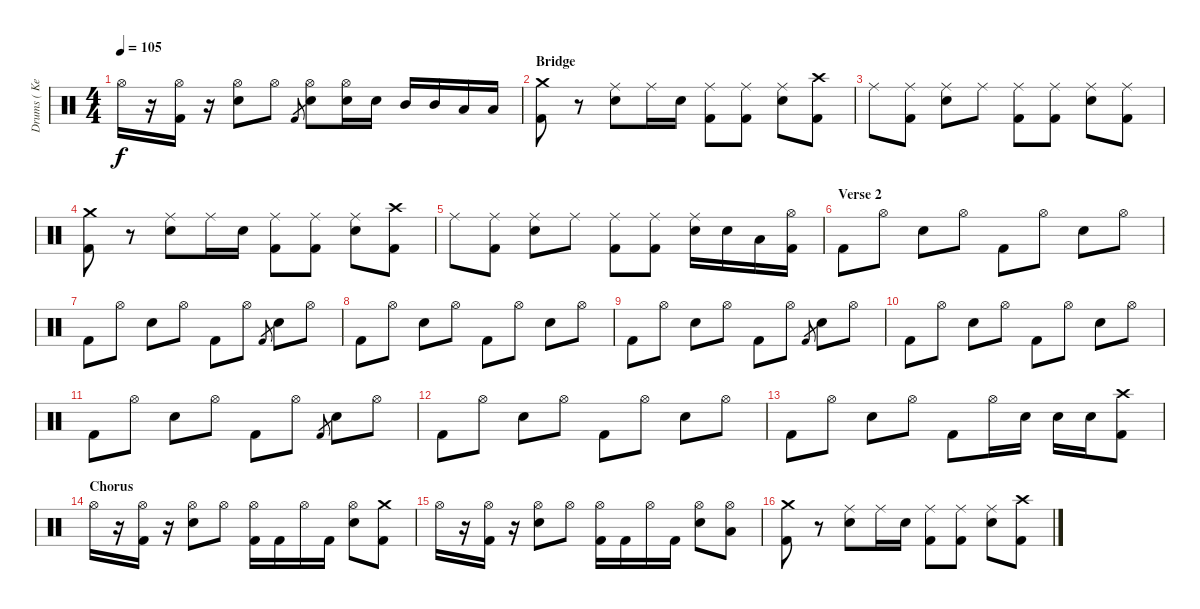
\track ("Drums ( Kevin Miller )" "Drums ( Ke") {instrument percussion}
\staff {score}
\articulation defaults
\ts (4 4)
\tempo 105
\clef neutral
\ks c "Hi-Hat (open)".16{dy f}
r.16 ("Hi-Hat (open)" "Kick (hit) 2").16 r.16 ("Hi-Hat (open)" "Snare (hit) 2").8 "Hi-Hat (open)".8 "Kick (hit) 2".8{gr} ("Hi-Hat (open)" "Snare (hit) 2").8 ("Hi-Hat (open)" "Snare (hit) 2").16 "Snare (hit) 2".16 "Mid Tom (hit)".16 "Mid Tom (hit)".16 "Low Tom (hit)".16 "Low Tom (hit)".16 |
\section ("" "Bridge")
("Crash medium (hit)" "Kick (hit) 2").8 r.8 ("Ride (middle)" "Snare (hit) 2").8 "Ride (middle)".16 "Snare (hit) 2".16 ("Ride (middle)" "Kick (hit) 2").8 ("Ride (middle)" "Kick (hit) 2").8 ("Ride (middle)" "Snare (hit) 2").8 ("Crash high (hit)" "Kick (hit) 2").8 |
"Ride (middle)".8 ("Ride (middle)" "Kick (hit) 2").8 ("Ride (middle)" "Snare (hit) 2").8 "Ride (middle)".8 ("Ride (middle)" "Kick (hit) 2").8 ("Ride (middle)" "Kick (hit) 2").8 ("Ride (middle)" "Snare (hit) 2").8 ("Ride (middle)" "Kick (hit) 2").8 |
("Crash medium (hit)" "Kick (hit) 2").8 r.8 ("Ride (middle)" "Snare (hit) 2").8 "Ride (middle)".16 "Snare (hit) 2".16 ("Ride (middle)" "Kick (hit) 2").8 ("Ride (middle)" "Kick (hit) 2").8 ("Ride (middle)" "Snare (hit) 2").8 ("Crash high (hit)" "Kick (hit) 2").8 |
"Ride (middle)".8 ("Ride (middle)" "Kick (hit) 2").8 ("Ride (middle)" "Snare (hit) 2").8 "Ride (middle)".8 ("Ride (middle)" "Kick (hit) 2").8 ("Ride (middle)" "Kick (hit) 2").8 ("Ride (middle)" "Snare (hit) 2").16 "Snare (hit) 2".16 "Low Tom (hit)".16 ("Hi-Hat (open)" "Kick (hit) 2").16 |
\section ("" "Verse 2")
"Kick (hit) 2".8 "Hi-Hat (open)".8 "Snare (hit) 2".8 "Hi-Hat (open)".8 "Kick (hit) 2".8 "Hi-Hat (open)".8 "Snare (hit) 2".8 "Hi-Hat (open)".8 |
"Kick (hit) 2".8 "Hi-Hat (open)".8 "Snare (hit) 2".8 "Hi-Hat (open)".8 "Kick (hit) 2".8 "Hi-Hat (open)".8 "Kick (hit) 2".8{gr} "Snare (hit) 2".8 "Hi-Hat (open)".8 |
"Kick (hit) 2".8 "Hi-Hat (open)".8 "Snare (hit) 2".8 "Hi-Hat (open)".8 "Kick (hit) 2".8 "Hi-Hat (open)".8 "Snare (hit) 2".8 "Hi-Hat (open)".8 |
"Kick (hit) 2".8 "Hi-Hat (open)".8 "Snare (hit) 2".8 "Hi-Hat (open)".8 "Kick (hit) 2".8 "Hi-Hat (open)".8 "Kick (hit) 2".8{gr} "Snare (hit) 2".8 "Hi-Hat (open)".8 |
"Kick (hit) 2".8 "Hi-Hat (open)".8 "Snare (hit) 2".8 "Hi-Hat (open)".8 "Kick (hit) 2".8 "Hi-Hat (open)".8 "Snare (hit) 2".8 "Hi-Hat (open)".8 |
"Kick (hit) 2".8 "Hi-Hat (open)".8 "Snare (hit) 2".8 "Hi-Hat (open)".8 "Kick (hit) 2".8 "Hi-Hat (open)".8 "Kick (hit) 2".8{gr} "Snare (hit) 2".8 "Hi-Hat (open)".8 |
"Kick (hit) 2".8 "Hi-Hat (open)".8 "Snare (hit) 2".8 "Hi-Hat (open)".8 "Kick (hit) 2".8 "Hi-Hat (open)".8 "Snare (hit) 2".8 "Hi-Hat (open)".8 |
"Kick (hit) 2".8 "Hi-Hat (open)".8 "Snare (hit) 2".8 "Hi-Hat (open)".8 "Kick (hit) 2".8 "Hi-Hat (open)".16 "Snare (hit) 2".16 "Snare (hit) 2".16 "Snare (hit) 2".16 ("Crash high (hit)" "Kick (hit) 2").8 |
\section ("" "Chorus")
"Hi-Hat (open)".16 r.16 ("Hi-Hat (open)" "Kick (hit) 2").16 r.16 ("Hi-Hat (open)" "Snare (hit) 2").8 "Hi-Hat (open)".8 ("Hi-Hat (open)" "Kick (hit) 2").16 "Kick (hit) 2".16 "Hi-Hat (open)".16 "Kick (hit) 2".16 ("Hi-Hat (open)" "Snare (hit) 2").8 ("Crash medium (hit)" "Kick (hit) 2").8 |
"Hi-Hat (open)".16 r.16 ("Hi-Hat (open)" "Kick (hit) 2").16 r.16 ("Hi-Hat (open)" "Snare (hit) 2").8 "Hi-Hat (open)".8 ("Hi-Hat (open)" "Kick (hit) 2").16 "Kick (hit) 2".16 "Hi-Hat (open)".16 "Kick (hit) 2".16 ("Hi-Hat (open)" "Snare (hit) 2").8 ("Hi-Hat (open)" "Low Tom (hit)").8 |
("Crash medium (hit)" "Kick (hit) 2").8 r.8 ("Ride (middle)" "Snare (hit) 2").8 "Ride (middle)".16 "Snare (hit) 2".16 ("Ride (middle)" "Kick (hit) 2").8 ("Ride (middle)" "Kick (hit) 2").8 ("Ride (middle)" "Snare (hit) 2").8 ("Crash high (hit)" "Kick (hit) 2").8
